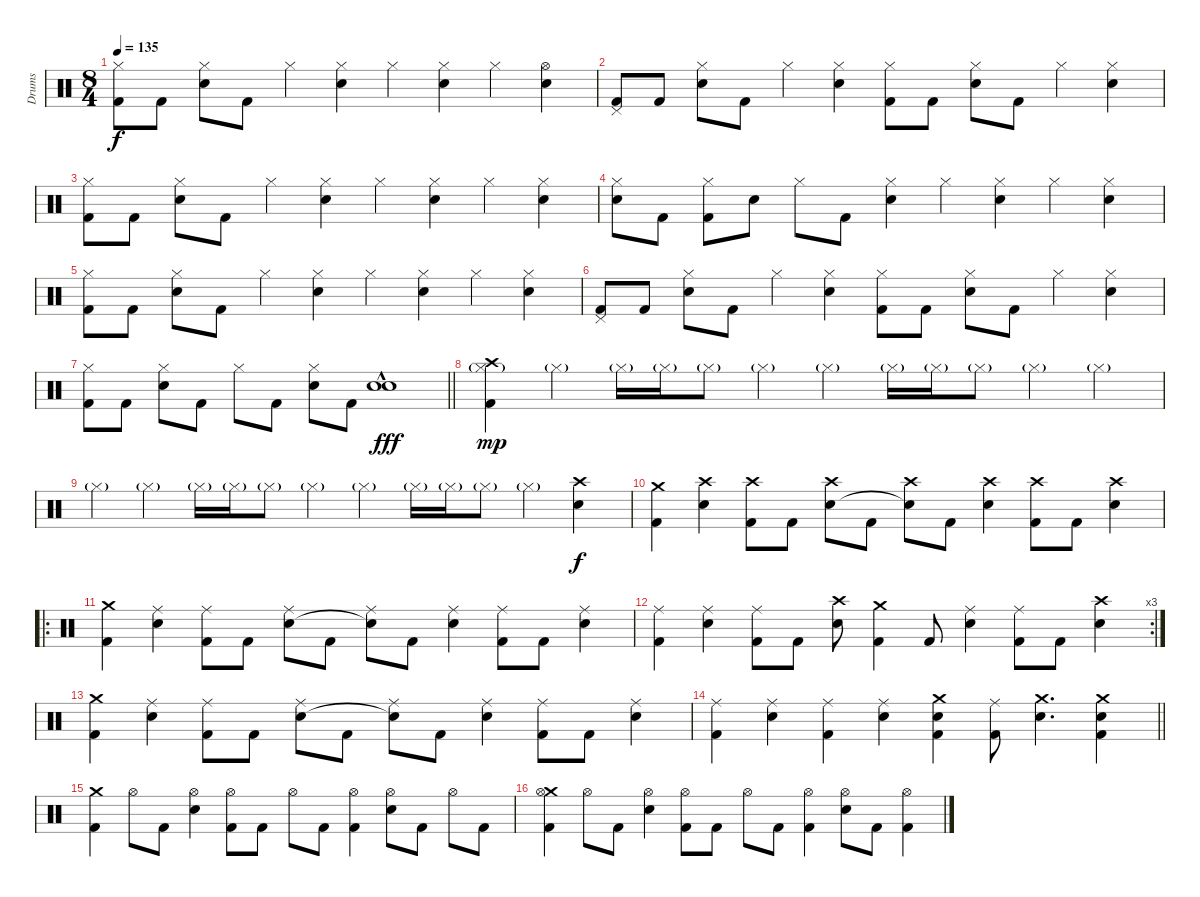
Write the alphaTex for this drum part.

\track ("Drums" "Drums") {instrument percussion}
\staff {score}
\articulation defaults
\ts (8 4)
\tempo 135
\clef neutral
\ks c
("Hi-Hat (closed)" "Kick (hit) 2").8{dy f} "Kick (hit) 2".8 ("Hi-Hat (closed)" "Electric Snare (hit)").8 "Kick (hit) 2".8 "Hi-Hat (closed)".4 ("Hi-Hat (closed)" "Electric Snare (hit)").4 "Hi-Hat (closed)".4 ("Hi-Hat (closed)" "Electric Snare (hit)").4 "Hi-Hat (closed)".4 ("Hi-Hat (open)" "Electric Snare (hit)").4 |
("Pedal Hi-Hat (hit)" "Kick (hit) 2").8 "Kick (hit) 2".8 ("Hi-Hat (closed)" "Electric Snare (hit)").8 "Kick (hit) 2".8 "Hi-Hat (closed)".4 ("Hi-Hat (closed)" "Electric Snare (hit)").4 ("Hi-Hat (closed)" "Kick (hit) 2").8 "Kick (hit) 2".8 ("Hi-Hat (closed)" "Electric Snare (hit)").8 "Kick (hit) 2".8 "Hi-Hat (closed)".4 ("Hi-Hat (closed)" "Electric Snare (hit)").4 |
("Hi-Hat (closed)" "Kick (hit) 2").8 "Kick (hit) 2".8 ("Hi-Hat (closed)" "Electric Snare (hit)").8 "Kick (hit) 2".8 "Hi-Hat (closed)".4 ("Hi-Hat (closed)" "Electric Snare (hit)").4 "Hi-Hat (closed)".4 ("Hi-Hat (closed)" "Electric Snare (hit)").4 "Hi-Hat (closed)".4 ("Hi-Hat (closed)" "Electric Snare (hit)").4 |
("Hi-Hat (closed)" "Electric Snare (hit)").8 "Kick (hit) 2".8 ("Hi-Hat (closed)" "Kick (hit) 2").8 "Electric Snare (hit)".8 "Hi-Hat (closed)".8 "Kick (hit) 2".8 ("Hi-Hat (closed)" "Electric Snare (hit)").4 "Hi-Hat (closed)".4 ("Hi-Hat (closed)" "Electric Snare (hit)").4 "Hi-Hat (closed)".4 ("Hi-Hat (closed)" "Electric Snare (hit)").4 |
("Hi-Hat (closed)" "Kick (hit) 2").8 "Kick (hit) 2".8 ("Hi-Hat (closed)" "Electric Snare (hit)").8 "Kick (hit) 2".8 "Hi-Hat (closed)".4 ("Hi-Hat (closed)" "Electric Snare (hit)").4 "Hi-Hat (closed)".4 ("Hi-Hat (closed)" "Electric Snare (hit)").4 "Hi-Hat (closed)".4 ("Hi-Hat (closed)" "Electric Snare (hit)").4 |
("Pedal Hi-Hat (hit)" "Kick (hit) 2").8 "Kick (hit) 2".8 ("Hi-Hat (closed)" "Electric Snare (hit)").8 "Kick (hit) 2".8 "Hi-Hat (closed)".4 ("Hi-Hat (closed)" "Electric Snare (hit)").4 ("Hi-Hat (closed)" "Kick (hit) 2").8 "Kick (hit) 2".8 ("Hi-Hat (closed)" "Electric Snare (hit)").8 "Kick (hit) 2".8 "Hi-Hat (closed)".4 ("Hi-Hat (closed)" "Electric Snare (hit)").4 |
\barLineRight lightlight
("Hi-Hat (closed)" "Kick (hit) 2").8 "Kick (hit) 2".8 ("Hi-Hat (closed)" "Electric Snare (hit)").8 "Kick (hit) 2".8 "Hi-Hat (closed)".8 "Kick (hit) 2".8 ("Hi-Hat (closed)" "Electric Snare (hit)").8 "Kick (hit) 2".8 ("Electric Snare (hit)"{hac} "Electric Snare (hit)"{hac}).1{dy fff} |
("Crash high (hit)" "Hi-Hat (closed)"{g} "Kick (hit) 2").4{dy mp} "Hi-Hat (closed)"{g}.4 "Hi-Hat (closed)"{g}.16 "Hi-Hat (closed)"{g}.16 "Hi-Hat (closed)"{g}.8 "Hi-Hat (closed)"{g}.4 "Hi-Hat (closed)"{g}.4 "Hi-Hat (closed)"{g}.16 "Hi-Hat (closed)"{g}.16 "Hi-Hat (closed)"{g}.8 "Hi-Hat (closed)"{g}.4 "Hi-Hat (closed)"{g}.4 |
"Hi-Hat (closed)"{g}.4 "Hi-Hat (closed)"{g}.4 "Hi-Hat (closed)"{g}.16 "Hi-Hat (closed)"{g}.16 "Hi-Hat (closed)"{g}.8 "Hi-Hat (closed)"{g}.4 "Hi-Hat (closed)"{g}.4 "Hi-Hat (closed)"{g}.16 "Hi-Hat (closed)"{g}.16 "Hi-Hat (closed)"{g}.8 "Hi-Hat (closed)"{g}.4 ("Crash high (hit)" "Electric Snare (hit)").4{dy f} |
("Crash medium (hit)" "Kick (hit) 2").4 ("Crash high (hit)" "Electric Snare (hit)").4 ("Crash high (hit)" "Kick (hit) 2").8 "Kick (hit) 2".8 ("Crash high (hit)" "Electric Snare (hit)").8 "Kick (hit) 2".8 ("Crash high (hit)" "Snare (hit)"{t}).8 "Kick (hit) 2".8 ("Crash high (hit)" "Electric Snare (hit)").4 ("Crash high (hit)" "Kick (hit) 2").8 "Kick (hit) 2".8 ("Crash high (hit)" "Electric Snare (hit)").4 |
\ro
("Crash medium (hit)" "Kick (hit) 2").4 ("Ride (middle)" "Electric Snare (hit)").4 ("Ride (middle)" "Kick (hit) 2").8 "Kick (hit) 2".8 ("Ride (middle)" "Electric Snare (hit)").8 "Kick (hit) 2".8 ("Ride (middle)" "Snare (hit)"{t}).8 "Kick (hit) 2".8 ("Ride (middle)" "Electric Snare (hit)").4 ("Ride (middle)" "Kick (hit) 2").8 "Kick (hit) 2".8 ("Ride (middle)" "Electric Snare (hit)").4 |
\rc 3
("Ride (middle)" "Kick (hit) 2").4 ("Ride (middle)" "Electric Snare (hit)").4 ("Ride (middle)" "Kick (hit) 2").8 "Kick (hit) 2".8 ("Crash high (hit)" "Electric Snare (hit)").8 ("Crash medium (hit)" "Kick (hit) 2").4 "Kick (hit) 2".8 ("Ride (middle)" "Electric Snare (hit)").4 ("Ride (middle)" "Kick (hit) 2").8 "Kick (hit) 2".8 ("Crash high (hit)" "Electric Snare (hit)").4 |
("Crash medium (hit)" "Kick (hit) 2").4 ("Ride (middle)" "Electric Snare (hit)").4 ("Ride (middle)" "Kick (hit) 2").8 "Kick (hit) 2".8 ("Ride (middle)" "Electric Snare (hit)").8 "Kick (hit) 2".8 ("Ride (middle)" "Snare (hit)"{t}).8 "Kick (hit) 2".8 ("Ride (middle)" "Electric Snare (hit)").4 ("Ride (middle)" "Kick (hit) 2").8 "Kick (hit) 2".8 ("Ride (middle)" "Electric Snare (hit)").4 |
\barLineRight lightlight
("Ride (middle)" "Kick (hit) 2").4 ("Ride (middle)" "Electric Snare (hit)").4 ("Ride (middle)" "Kick (hit) 2").4 ("Ride (middle)" "Electric Snare (hit)").4 ("Crash medium (hit)" "Electric Snare (hit)" "Kick (hit) 2").4 ("Ride (middle)" "Kick (hit) 2").8 ("Crash medium (hit)" "Electric Snare (hit)").4{d} ("Crash medium (hit)" "Electric Snare (hit)" "Kick (hit) 2").4 |
("Crash medium (hit)" "Kick (hit) 2").4 "Hi-Hat (open)".8 "Kick (hit) 2".8 ("Hi-Hat (open)" "Electric Snare (hit)").4 ("Hi-Hat (open)" "Kick (hit) 2").8 "Kick (hit) 2".8 "Hi-Hat (open)".8 "Kick (hit) 2".8 ("Hi-Hat (open)" "Kick (hit) 2").4 ("Hi-Hat (open)" "Electric Snare (hit)").8 "Kick (hit) 2".8 "Hi-Hat (open)".8 "Kick (hit) 2".8 |
("Crash medium (hit)" "Hi-Hat (open)" "Kick (hit) 2").4 "Hi-Hat (open)".8 "Kick (hit) 2".8 ("Hi-Hat (open)" "Electric Snare (hit)").4 ("Hi-Hat (open)" "Kick (hit) 2").8 "Kick (hit) 2".8 "Hi-Hat (open)".8 "Kick (hit) 2".8 ("Hi-Hat (open)" "Kick (hit) 2").4 ("Hi-Hat (open)" "Electric Snare (hit)").8 "Kick (hit) 2".8 ("Hi-Hat (open)" "Kick (hit) 2").4
